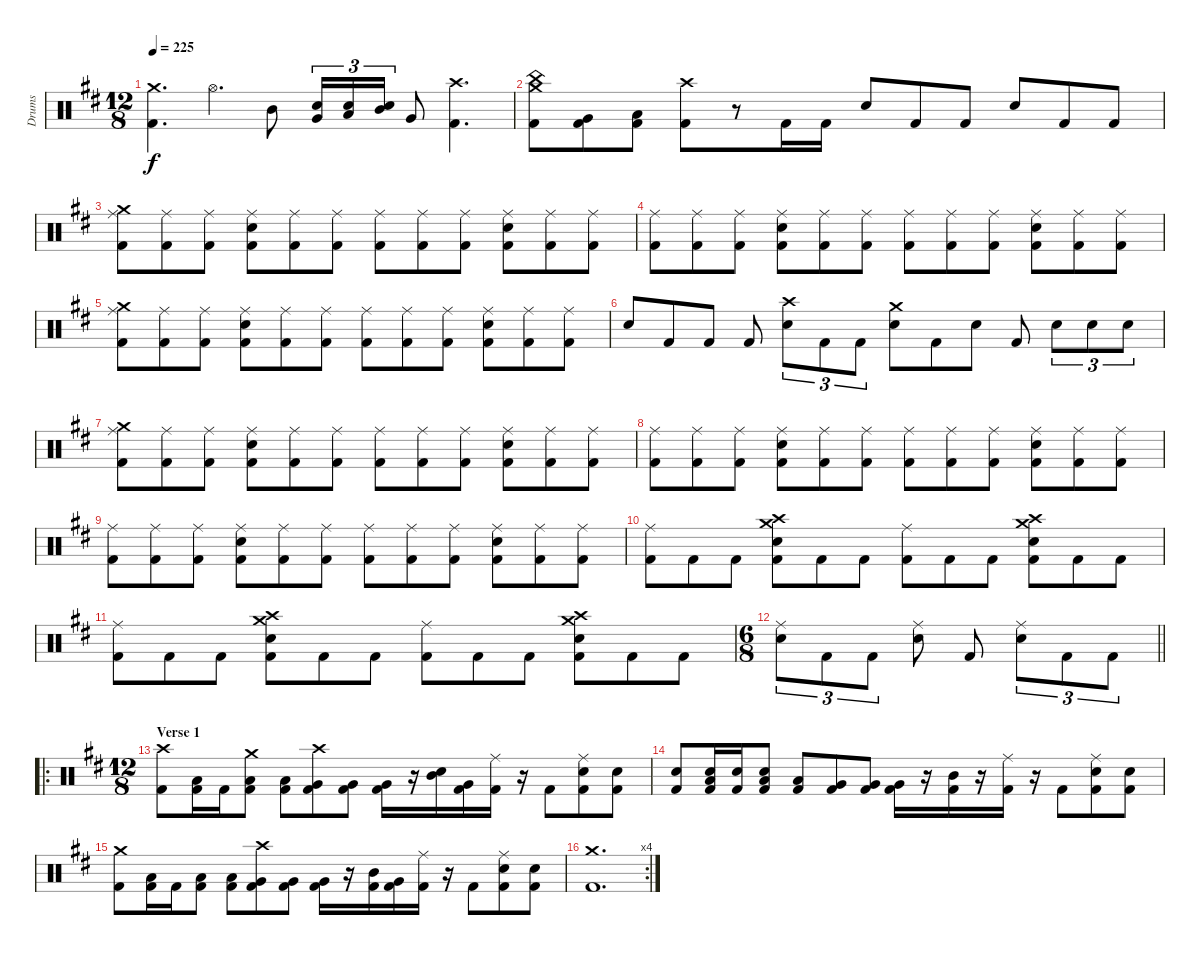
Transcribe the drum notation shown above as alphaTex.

\track ("Drums" "Drums") {instrument percussion}
\staff {score}
\articulation defaults
\ts (12 8)
\tempo 225
\clef neutral
\ks d
("Crash medium (hit)" "Kick (hit) 2").4{d dy f} "Hi-Hat (open)".4{d} "Mid Tom (hit)".8 ("Very Low Tom (hit)" "Electric Snare (hit)").16{tu (3 2)} ("Low Tom (hit)" "Electric Snare (hit)").16{tu (3 2)} ("Mid Tom (hit)" "Electric Snare (hit)").16{tu (3 2)} "Very Low Tom (hit)".8 ("Crash high (hit)" "Kick (hit) 2").4{d} |
("Crash medium (hit)" "China (hit)" "Kick (hit) 2").8 ("Very Low Tom (hit)" "Kick (hit) 2").8 ("Low Floor Tom (hit)" "Kick (hit) 2").8 ("Crash high (hit)" "Kick (hit) 2").8 r.8 "Kick (hit) 2".16 "Kick (hit) 2".16 "Electric Snare (hit)".8 "Kick (hit) 2".8 "Kick (hit) 2".8 "Electric Snare (hit)".8 "Kick (hit) 2".8 "Kick (hit) 2".8 |
("Crash medium (hit)" "Ride (middle)" "Kick (hit) 2").8 ("Ride (middle)" "Kick (hit) 2").8 ("Ride (middle)" "Kick (hit) 2").8 ("Ride (middle)" "Electric Snare (hit)" "Kick (hit) 2").8 ("Ride (middle)" "Kick (hit) 2").8 ("Ride (middle)" "Kick (hit) 2").8 ("Ride (middle)" "Kick (hit) 2").8 ("Ride (middle)" "Kick (hit) 2").8 ("Ride (middle)" "Kick (hit) 2").8 ("Ride (middle)" "Electric Snare (hit)" "Kick (hit) 2").8 ("Ride (middle)" "Kick (hit) 2").8 ("Ride (middle)" "Kick (hit) 2").8 |
("Ride (middle)" "Kick (hit) 2").8 ("Ride (middle)" "Kick (hit) 2").8 ("Ride (middle)" "Kick (hit) 2").8 ("Ride (middle)" "Electric Snare (hit)" "Kick (hit) 2").8 ("Ride (middle)" "Kick (hit) 2").8 ("Ride (middle)" "Kick (hit) 2").8 ("Ride (middle)" "Kick (hit) 2").8 ("Ride (middle)" "Kick (hit) 2").8 ("Ride (middle)" "Kick (hit) 2").8 ("Ride (middle)" "Electric Snare (hit)" "Kick (hit) 2").8 ("Ride (middle)" "Kick (hit) 2").8 ("Ride (middle)" "Kick (hit) 2").8 |
("Crash medium (hit)" "Ride (middle)" "Kick (hit) 2").8 ("Ride (middle)" "Kick (hit) 2").8 ("Ride (middle)" "Kick (hit) 2").8 ("Ride (middle)" "Electric Snare (hit)" "Kick (hit) 2").8 ("Ride (middle)" "Kick (hit) 2").8 ("Ride (middle)" "Kick (hit) 2").8 ("Ride (middle)" "Kick (hit) 2").8 ("Ride (middle)" "Kick (hit) 2").8 ("Ride (middle)" "Kick (hit) 2").8 ("Ride (middle)" "Electric Snare (hit)" "Kick (hit) 2").8 ("Ride (middle)" "Kick (hit) 2").8 ("Ride (middle)" "Kick (hit) 2").8 |
"Electric Snare (hit)".8 "Kick (hit) 2".8 "Kick (hit) 2".8 "Kick (hit) 2".8 ("Crash high (hit)" "Electric Snare (hit)").8{tu (3 2)} "Kick (hit) 2".8{tu (3 2)} "Kick (hit) 2".8{tu (3 2)} ("Crash medium (hit)" "Electric Snare (hit)").8 "Kick (hit) 2".8 "Electric Snare (hit)".8 "Kick (hit) 2".8 "Electric Snare (hit)".8{tu (3 2)} "Electric Snare (hit)".8{tu (3 2)} "Electric Snare (hit)".8{tu (3 2)} |
("Crash medium (hit)" "Ride (middle)" "Kick (hit) 2").8 ("Ride (middle)" "Kick (hit) 2").8 ("Ride (middle)" "Kick (hit) 2").8 ("Ride (middle)" "Electric Snare (hit)" "Kick (hit) 2").8 ("Ride (middle)" "Kick (hit) 2").8 ("Ride (middle)" "Kick (hit) 2").8 ("Ride (middle)" "Kick (hit) 2").8 ("Ride (middle)" "Kick (hit) 2").8 ("Ride (middle)" "Kick (hit) 2").8 ("Ride (middle)" "Electric Snare (hit)" "Kick (hit) 2").8 ("Ride (middle)" "Kick (hit) 2").8 ("Ride (middle)" "Kick (hit) 2").8 |
("Ride (middle)" "Kick (hit) 2").8 ("Ride (middle)" "Kick (hit) 2").8 ("Ride (middle)" "Kick (hit) 2").8 ("Ride (middle)" "Electric Snare (hit)" "Kick (hit) 2").8 ("Ride (middle)" "Kick (hit) 2").8 ("Ride (middle)" "Kick (hit) 2").8 ("Ride (middle)" "Kick (hit) 2").8 ("Ride (middle)" "Kick (hit) 2").8 ("Ride (middle)" "Kick (hit) 2").8 ("Ride (middle)" "Electric Snare (hit)" "Kick (hit) 2").8 ("Ride (middle)" "Kick (hit) 2").8 ("Ride (middle)" "Kick (hit) 2").8 |
("Ride (middle)" "Kick (hit) 2").8 ("Ride (middle)" "Kick (hit) 2").8 ("Ride (middle)" "Kick (hit) 2").8 ("Ride (middle)" "Electric Snare (hit)" "Kick (hit) 2").8 ("Ride (middle)" "Kick (hit) 2").8 ("Ride (middle)" "Kick (hit) 2").8 ("Ride (middle)" "Kick (hit) 2").8 ("Ride (middle)" "Kick (hit) 2").8 ("Ride (middle)" "Kick (hit) 2").8 ("Ride (middle)" "Electric Snare (hit)" "Kick (hit) 2").8 ("Ride (middle)" "Kick (hit) 2").8 ("Ride (middle)" "Kick (hit) 2").8 |
("Ride (middle)" "Kick (hit) 2").8 "Kick (hit) 2".8 "Kick (hit) 2".8 ("Crash high (hit)" "Crash medium (hit)" "Electric Snare (hit)" "Kick (hit) 2").8 "Kick (hit) 2".8 "Kick (hit) 2".8 ("Ride (middle)" "Kick (hit) 2").8 "Kick (hit) 2".8 "Kick (hit) 2".8 ("Crash high (hit)" "Crash medium (hit)" "Electric Snare (hit)" "Kick (hit) 2").8 "Kick (hit) 2".8 "Kick (hit) 2".8 |
("Ride (middle)" "Kick (hit) 2").8 "Kick (hit) 2".8 "Kick (hit) 2".8 ("Crash high (hit)" "Crash medium (hit)" "Electric Snare (hit)" "Kick (hit) 2").8 "Kick (hit) 2".8 "Kick (hit) 2".8 ("Ride (middle)" "Kick (hit) 2").8 "Kick (hit) 2".8 "Kick (hit) 2".8 ("Crash high (hit)" "Crash medium (hit)" "Electric Snare (hit)" "Kick (hit) 2").8 "Kick (hit) 2".8 "Kick (hit) 2".8 |
\ts (6 8)
\barLineRight lightlight
("Ride (middle)" "Electric Snare (hit)").8{tu (3 2)} "Kick (hit) 2".8{tu (3 2)} "Kick (hit) 2".8{tu (3 2)} ("Ride (middle)" "Electric Snare (hit)").8 "Kick (hit) 2".8 ("Ride (middle)" "Electric Snare (hit)").8{tu (3 2)} "Kick (hit) 2".8{tu (3 2)} "Kick (hit) 2".8{tu (3 2)} |
\ro
\ts (12 8)
\section ("" "Verse 1")
("Crash high (hit)" "Kick (hit) 2").8 ("Low Tom (hit)" "Kick (hit) 2").16 "Kick (hit) 2".16 ("Crash medium (hit)" "Low Tom (hit)" "Kick (hit) 2").8 ("Low Tom (hit)" "Kick (hit) 2").8 ("Crash high (hit)" "Very Low Tom (hit)" "Kick (hit) 2").8 ("Very Low Tom (hit)" "Kick (hit) 2").8 ("Very Low Tom (hit)" "Kick (hit) 2").16 r.16 ("Mid Tom (hit)" "Electric Snare (hit)").16 ("Very Low Tom (hit)" "Kick (hit) 2").16 ("Ride (middle)" "Kick (hit) 2").16 r.16 "Kick (hit) 2".8 ("Ride (middle)" "Electric Snare (hit)" "Kick (hit) 2").8 ("Electric Snare (hit)" "Kick (hit) 2").8 |
("Electric Snare (hit)" "Kick (hit) 2").8 ("Electric Snare (hit)" "Low Tom (hit)" "Kick (hit) 2").16 ("Electric Snare (hit)" "Kick (hit) 2").16 ("Electric Snare (hit)" "Low Tom (hit)" "Kick (hit) 2").8 ("Low Tom (hit)" "Kick (hit) 2").8 ("Very Low Tom (hit)" "Kick (hit) 2").8 ("Very Low Tom (hit)" "Kick (hit) 2").8 ("Very Low Tom (hit)" "Kick (hit) 2").16 r.16 ("Mid Tom (hit)" "Kick (hit) 2").16 r.16 ("Ride (middle)" "Kick (hit) 2").16 r.16 "Kick (hit) 2".8 ("Ride (middle)" "Electric Snare (hit)" "Kick (hit) 2").8 ("Electric Snare (hit)" "Kick (hit) 2").8 |
("Crash medium (hit)" "Kick (hit) 2").8 ("Low Tom (hit)" "Kick (hit) 2").16 "Kick (hit) 2".16 ("Low Tom (hit)" "Kick (hit) 2").8 ("Low Tom (hit)" "Kick (hit) 2").8 ("Crash high (hit)" "Very Low Tom (hit)" "Kick (hit) 2").8 ("Very Low Tom (hit)" "Kick (hit) 2").8 ("Very Low Tom (hit)" "Kick (hit) 2").16 r.16 ("Mid Tom (hit)" "Kick (hit) 2").16 ("Very Low Tom (hit)" "Kick (hit) 2").16 ("Ride (middle)" "Kick (hit) 2").16 r.16 "Kick (hit) 2".8 ("Ride (middle)" "Electric Snare (hit)" "Kick (hit) 2").8 ("Electric Snare (hit)" "Kick (hit) 2").8 |
\rc 4
("Crash medium (hit)" "Kick (hit) 2").1{d}
